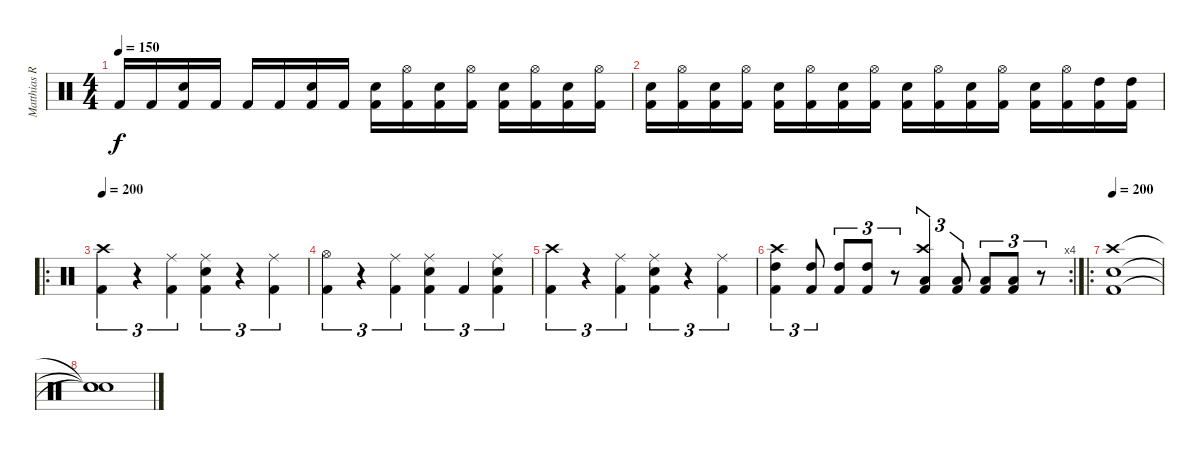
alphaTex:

\track ("Matthias Rodig" "Matthias R") {instrument percussion}
\staff {score}
\articulation defaults
\ts (4 4)
\tempo 150
\clef neutral
\ks c "Kick (hit) 2".16{dy f} "Kick (hit) 2".16
("Kick (hit) 2" "Snare (hit) 2").16 "Kick (hit) 2".16 "Kick (hit) 2".16 "Kick (hit) 2".16 ("Kick (hit) 2" "Snare (hit) 2").16 "Kick (hit) 2".16 ("Kick (hit) 2" "Snare (hit) 2").16 ("Kick (hit) 2" "Hi-Hat (open)").16 ("Kick (hit) 2" "Snare (hit) 2").16 ("Kick (hit) 2" "Hi-Hat (open)").16 ("Kick (hit) 2" "Snare (hit) 2").16 ("Kick (hit) 2" "Hi-Hat (open)").16 ("Kick (hit) 2" "Snare (hit) 2").16 ("Kick (hit) 2" "Hi-Hat (open)").16 |
("Kick (hit) 2" "Snare (hit) 2").16 ("Kick (hit) 2" "Hi-Hat (open)").16 ("Kick (hit) 2" "Snare (hit) 2").16 ("Kick (hit) 2" "Hi-Hat (open)").16 ("Kick (hit) 2" "Snare (hit) 2").16 ("Kick (hit) 2" "Hi-Hat (open)").16 ("Kick (hit) 2" "Snare (hit) 2").16 ("Kick (hit) 2" "Hi-Hat (open)").16 ("Kick (hit) 2" "Snare (hit) 2").16 ("Kick (hit) 2" "Hi-Hat (open)").16 ("Kick (hit) 2" "Snare (hit) 2").16 ("Kick (hit) 2" "Hi-Hat (open)").16 ("Kick (hit) 2" "Snare (hit) 2").16 ("Kick (hit) 2" "Hi-Hat (open)").16 ("Kick (hit) 2" "High Tom (hit)").16 ("Kick (hit) 2" "High Tom (hit)").16 |
\ro
\tempo 200
("Kick (hit) 2" "Crash high (hit)").4{tu (3 2)} r.4{tu (3 2)} ("Kick (hit) 2" "Ride (middle)").4{tu (3 2)} ("Kick (hit) 2" "Snare (hit) 2" "Ride (middle)").4{tu (3 2)} r.4{tu (3 2)} ("Kick (hit) 2" "Ride (middle)").4{tu (3 2)} |
("Kick (hit) 2" "Hi-Hat (open)").4{tu (3 2)} r.4{tu (3 2)} ("Kick (hit) 2" "Ride (middle)").4{tu (3 2)} ("Kick (hit) 2" "Snare (hit) 2" "Ride (middle)").4{tu (3 2)} "Kick (hit) 2".4{tu (3 2)} ("Kick (hit) 2" "Snare (hit) 2" "Ride (middle)").4{tu (3 2)} |
("Kick (hit) 2" "Crash high (hit)").4{tu (3 2)} r.4{tu (3 2)} ("Kick (hit) 2" "Ride (middle)").4{tu (3 2)} ("Kick (hit) 2" "Snare (hit) 2" "Ride (middle)").4{tu (3 2)} r.4{tu (3 2)} ("Kick (hit) 2" "Ride (middle)").4{tu (3 2)} |
\rc 4
("Kick (hit) 2" "High Tom (hit)" "Crash high (hit)").4{tu (3 2)} ("Kick (hit) 2" "High Tom (hit)").8{tu (3 2)} ("Kick (hit) 2" "High Tom (hit)").8{tu (3 2)} ("Kick (hit) 2" "High Tom (hit)").8{tu (3 2)} r.8{tu (3 2)} ("Kick (hit) 2" "Low Tom (hit)" "Crash high (hit)").4{tu (3 2)} ("Kick (hit) 2" "Low Tom (hit)").8{tu (3 2)} ("Kick (hit) 2" "Low Tom (hit)").8{tu (3 2)} ("Kick (hit) 2" "Low Tom (hit)").8{tu (3 2)} r.8{tu (3 2)} |
\ro
\tempo 200
("Kick (hit) 2" "Snare (hit) 2" "Crash high (hit)").1 |
("Snare (hit)"{t} "Snare (hit)"{t} "Snare (hit)"{t}).1
